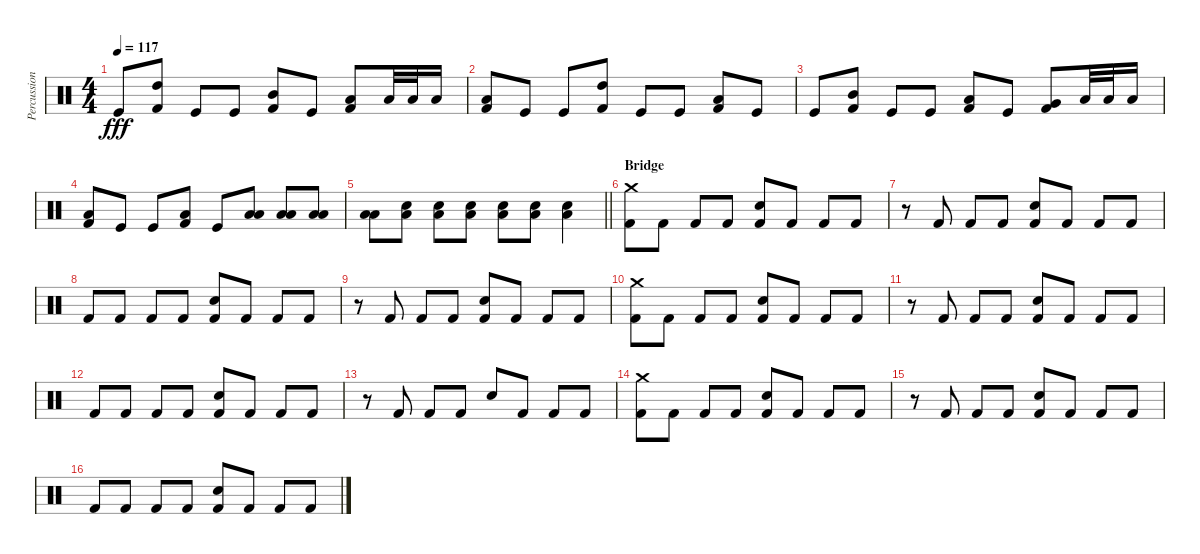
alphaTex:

\track ("Percussioni" "Percussion") {instrument percussion}
\staff {score}
\articulation defaults
\ts (4 4)
\tempo 117
\clef neutral
\ks c "Kick (hit)".8{dy fff}
("High Tom (hit)" "Kick (hit) 2").8 "Kick (hit)".8 "Kick (hit)".8 ("Mid Tom (hit)" "Kick (hit) 2").8 "Kick (hit)".8 ("Low Tom (hit)" "Kick (hit) 2").8 "Low Floor Tom (hit)".32 "Low Floor Tom (hit)".32 "Low Floor Tom (hit)".16 |
("Low Floor Tom (hit)" "Kick (hit) 2").8 "Kick (hit)".8 "Kick (hit)".8 ("High Tom (hit)" "Kick (hit) 2").8 "Kick (hit)".8 "Kick (hit)".8 ("Low Tom (hit)" "Kick (hit) 2").8 "Kick (hit)".8 |
"Kick (hit)".8 ("Mid Tom (hit)" "Kick (hit) 2").8 "Kick (hit)".8 "Kick (hit)".8 ("Low Floor Tom (hit)" "Kick (hit) 2").8 "Kick (hit)".8 ("Very Low Tom (hit)" "Kick (hit) 2").8 "Low Floor Tom (hit)".32 "Low Floor Tom (hit)".32 "Low Floor Tom (hit)".16 |
("Low Floor Tom (hit)" "Kick (hit) 2").8 "Kick (hit)".8 "Kick (hit)".8 ("Low Floor Tom (hit)" "Kick (hit) 2").8 "Kick (hit)".8 ("Low Floor Tom (hit)" "Low Floor Tom (hit)").8 ("Low Floor Tom (hit)" "Low Floor Tom (hit)").8 ("Low Floor Tom (hit)" "Low Floor Tom (hit)").8 |
\barLineRight lightlight
("Low Floor Tom (hit)" "Low Floor Tom (hit)").8 ("Snare (hit) 2" "Low Floor Tom (hit)").8 ("Snare (hit) 2" "Low Floor Tom (hit)").8 ("Snare (hit) 2" "Low Floor Tom (hit)").8 ("Snare (hit) 2" "Low Floor Tom (hit)").8 ("Snare (hit) 2" "Low Floor Tom (hit)").8 ("Electric Snare (hit)" "Low Floor Tom (hit)").4 |
\section ("" "Bridge")
("Crash medium (hit)" "Kick (hit) 2").8 "Kick (hit) 2".8 "Kick (hit) 2".8 "Kick (hit) 2".8 ("Electric Snare (hit)" "Kick (hit) 2").8 "Kick (hit) 2".8 "Kick (hit) 2".8 "Kick (hit) 2".8 |
r.8 "Kick (hit) 2".8 "Kick (hit) 2".8 "Kick (hit) 2".8 ("Electric Snare (hit)" "Kick (hit) 2").8 "Kick (hit) 2".8 "Kick (hit) 2".8 "Kick (hit) 2".8 |
"Kick (hit) 2".8 "Kick (hit) 2".8 "Kick (hit) 2".8 "Kick (hit) 2".8 ("Electric Snare (hit)" "Kick (hit) 2").8 "Kick (hit) 2".8 "Kick (hit) 2".8 "Kick (hit) 2".8 |
r.8 "Kick (hit) 2".8 "Kick (hit) 2".8 "Kick (hit) 2".8 ("Electric Snare (hit)" "Kick (hit) 2").8 "Kick (hit) 2".8 "Kick (hit) 2".8 "Kick (hit) 2".8 |
("Crash medium (hit)" "Kick (hit) 2").8 "Kick (hit) 2".8 "Kick (hit) 2".8 "Kick (hit) 2".8 ("Electric Snare (hit)" "Kick (hit) 2").8 "Kick (hit) 2".8 "Kick (hit) 2".8 "Kick (hit) 2".8 |
r.8 "Kick (hit) 2".8 "Kick (hit) 2".8 "Kick (hit) 2".8 ("Electric Snare (hit)" "Kick (hit) 2").8 "Kick (hit) 2".8 "Kick (hit) 2".8 "Kick (hit) 2".8 |
"Kick (hit) 2".8 "Kick (hit) 2".8 "Kick (hit) 2".8 "Kick (hit) 2".8 ("Electric Snare (hit)" "Kick (hit) 2").8 "Kick (hit) 2".8 "Kick (hit) 2".8 "Kick (hit) 2".8 |
r.8 "Kick (hit) 2".8 "Kick (hit) 2".8 "Kick (hit) 2".8 "Electric Snare (hit)".8 "Kick (hit) 2".8 "Kick (hit) 2".8 "Kick (hit) 2".8 |
("Crash medium (hit)" "Kick (hit) 2").8 "Kick (hit) 2".8 "Kick (hit) 2".8 "Kick (hit) 2".8 ("Electric Snare (hit)" "Kick (hit) 2").8 "Kick (hit) 2".8 "Kick (hit) 2".8 "Kick (hit) 2".8 |
r.8 "Kick (hit) 2".8 "Kick (hit) 2".8 "Kick (hit) 2".8 ("Electric Snare (hit)" "Kick (hit) 2").8 "Kick (hit) 2".8 "Kick (hit) 2".8 "Kick (hit) 2".8 |
"Kick (hit) 2".8 "Kick (hit) 2".8 "Kick (hit) 2".8 "Kick (hit) 2".8 ("Electric Snare (hit)" "Kick (hit) 2").8 "Kick (hit) 2".8 "Kick (hit) 2".8 "Kick (hit) 2".8
